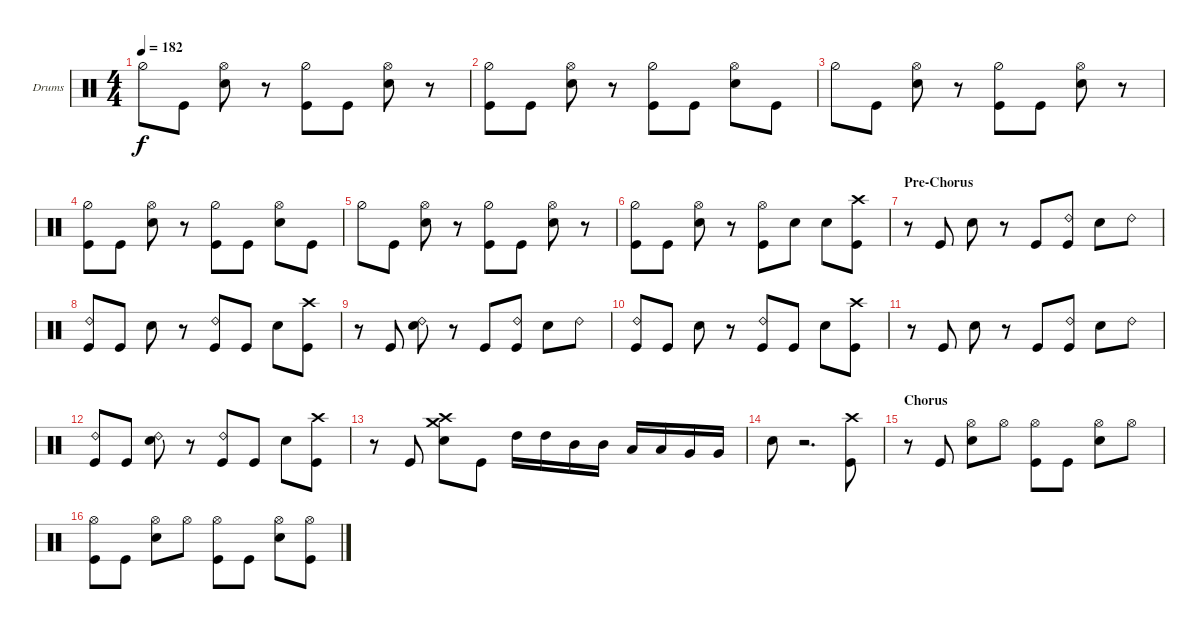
\defaultSystemsLayout 4
\bracketExtendMode groupsimilarinstruments
\firstSystemTrackNameOrientation horizontal
\otherSystemsTrackNameOrientation horizontal
\track ("Drumkit" "Drums") {instrument percussion}
\staff {score}
\articulation defaults
\ts (4 4)
\tempo 182
\clef neutral
\ks c "Hi-Hat (half)".8{dy f} "Kick (hit)".8
("Snare (hit) 2" "Hi-Hat (open)").8 r.8 ("Kick (hit)" "Hi-Hat (half)").8 "Kick (hit)".8 ("Snare (hit) 2" "Hi-Hat (open)").8 r.8 |
("Kick (hit)" "Hi-Hat (half)").8 "Kick (hit)".8 ("Snare (hit) 2" "Hi-Hat (open)").8 r.8 ("Kick (hit)" "Hi-Hat (half)").8 "Kick (hit)".8 ("Snare (hit) 2" "Hi-Hat (open)").8 "Kick (hit)".8 |
"Hi-Hat (half)".8 "Kick (hit)".8 ("Snare (hit) 2" "Hi-Hat (open)").8 r.8 ("Kick (hit)" "Hi-Hat (half)").8 "Kick (hit)".8 ("Snare (hit) 2" "Hi-Hat (open)").8 r.8 |
("Kick (hit)" "Hi-Hat (half)").8 "Kick (hit)".8 ("Snare (hit) 2" "Hi-Hat (open)").8 r.8 ("Kick (hit)" "Hi-Hat (half)").8 "Kick (hit)".8 ("Snare (hit) 2" "Hi-Hat (open)").8 "Kick (hit)".8 |
"Hi-Hat (half)".8 "Kick (hit)".8 ("Snare (hit) 2" "Hi-Hat (open)").8 r.8 ("Kick (hit)" "Hi-Hat (half)").8 "Kick (hit)".8 ("Snare (hit) 2" "Hi-Hat (open)").8 r.8 |
("Kick (hit)" "Hi-Hat (half)").8 "Kick (hit)".8 ("Snare (hit) 2" "Hi-Hat (open)").8 r.8 ("Kick (hit)" "Hi-Hat (open)").8 "Snare (hit) 2".8 "Snare (hit) 2".8 ("Kick (hit)" "Crash high (hit)").8 |
\section ("" "Pre-Chorus")
r.8 "Kick (hit)".8 "Snare (hit) 2".8 r.8 "Kick (hit)".8 ("Kick (hit)" "Ride (bell) 2").8 "Snare (hit) 2".8 "Ride (bell) 2".8 |
("Kick (hit)" "Ride (bell) 2").8 "Kick (hit)".8 "Snare (hit) 2".8 r.8 ("Kick (hit)" "Ride (bell) 2").8 "Kick (hit)".8 "Snare (hit) 2".8 ("Kick (hit)" "Crash high (hit)").8 |
r.8 "Kick (hit)".8 ("Snare (hit) 2" "Ride (bell) 2").8 r.8 "Kick (hit)".8 ("Kick (hit)" "Ride (bell) 2").8 "Snare (hit) 2".8 "Ride (bell) 2".8 |
("Kick (hit)" "Ride (bell) 2").8 "Kick (hit)".8 "Snare (hit) 2".8 r.8 ("Kick (hit)" "Ride (bell) 2").8 "Kick (hit)".8 "Snare (hit) 2".8 ("Kick (hit)" "Crash high (hit)").8 |
r.8 "Kick (hit)".8 "Snare (hit) 2".8 r.8 "Kick (hit)".8 ("Kick (hit)" "Ride (bell) 2").8 "Snare (hit) 2".8 "Ride (bell) 2".8 |
("Kick (hit)" "Ride (bell) 2").8 "Kick (hit)".8 ("Snare (hit) 2" "Ride (bell) 2").8 r.8 ("Kick (hit)" "Ride (bell) 2").8 "Kick (hit)".8 "Snare (hit) 2".8 ("Kick (hit)" "Crash high (hit)").8 |
r.8 "Kick (hit)".8 ("Snare (hit) 2" "Crash high (hit)" "Crash medium (hit)").8 "Kick (hit)".8 "High Tom (hit)".16 "High Tom (hit)".16 "Mid Tom (hit)".16 "Mid Tom (hit)".16 "Low Tom (hit)".16 "Low Tom (hit)".16 "Very Low Tom (hit)".16 "Very Low Tom (hit)".16 |
"Snare (hit) 2".8 r.2{d} ("Kick (hit)" "Crash high (hit)").8 |
\section ("" "Chorus")
r.8 "Kick (hit)".8 ("Snare (hit) 2" "Hi-Hat (open)").8 "Hi-Hat (open)".8 ("Kick (hit)" "Hi-Hat (open)").8 "Kick (hit)".8 ("Snare (hit) 2" "Hi-Hat (open)").8 "Hi-Hat (open)".8 |
("Kick (hit)" "Hi-Hat (open)").8 "Kick (hit)".8 ("Snare (hit) 2" "Hi-Hat (open)").8 "Hi-Hat (open)".8 ("Kick (hit)" "Hi-Hat (open)").8 "Kick (hit)".8 ("Snare (hit) 2" "Hi-Hat (open)").8 ("Kick (hit)" "Hi-Hat (open)").8
